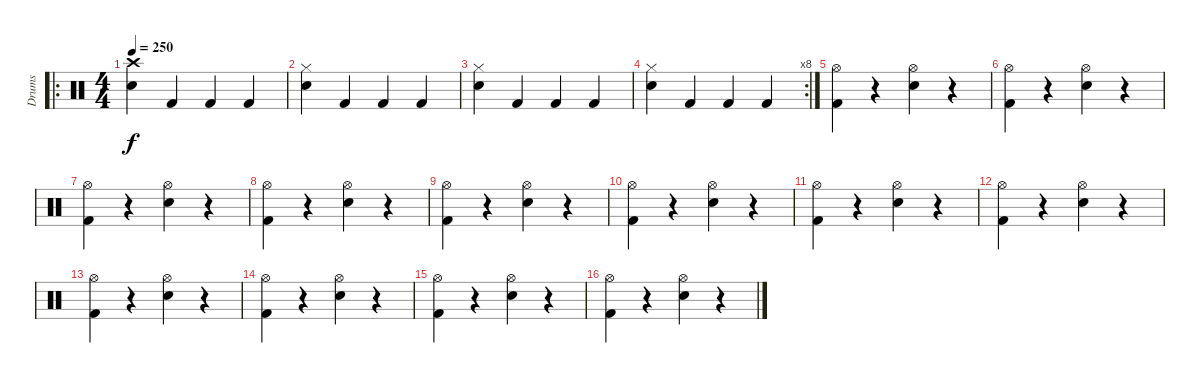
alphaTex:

\track ("Drums" "Drums") {instrument percussion}
\staff {score}
\articulation defaults
\ro
\ts (4 4)
\tempo 250
\clef neutral
\ks c
("Crash high (hit)" "Snare (hit) 2").4{dy f} "Kick (hit) 2".4 "Kick (hit) 2".4 "Kick (hit) 2".4 |
("Hi-Hat (closed)" "Snare (hit) 2").4 "Kick (hit) 2".4 "Kick (hit) 2".4 "Kick (hit) 2".4 |
("Hi-Hat (closed)" "Snare (hit) 2").4 "Kick (hit) 2".4 "Kick (hit) 2".4 "Kick (hit) 2".4 |
\rc 8
("Hi-Hat (closed)" "Snare (hit) 2").4 "Kick (hit) 2".4 "Kick (hit) 2".4 "Kick (hit) 2".4 |
("Hi-Hat (open)" "Kick (hit) 2").4 r.4 ("Hi-Hat (open)" "Snare (hit) 2").4 r.4 |
("Hi-Hat (open)" "Kick (hit) 2").4 r.4 ("Hi-Hat (open)" "Snare (hit) 2").4 r.4 |
("Hi-Hat (open)" "Kick (hit) 2").4 r.4 ("Hi-Hat (open)" "Snare (hit) 2").4 r.4 |
("Hi-Hat (open)" "Kick (hit) 2").4 r.4 ("Hi-Hat (open)" "Snare (hit) 2").4 r.4 |
("Hi-Hat (open)" "Kick (hit) 2").4 r.4 ("Hi-Hat (open)" "Snare (hit) 2").4 r.4 |
("Hi-Hat (open)" "Kick (hit) 2").4 r.4 ("Hi-Hat (open)" "Snare (hit) 2").4 r.4 |
("Hi-Hat (open)" "Kick (hit) 2").4 r.4 ("Hi-Hat (open)" "Snare (hit) 2").4 r.4 |
("Hi-Hat (open)" "Kick (hit) 2").4 r.4 ("Hi-Hat (open)" "Snare (hit) 2").4 r.4 |
("Hi-Hat (open)" "Kick (hit) 2").4 r.4 ("Hi-Hat (open)" "Snare (hit) 2").4 r.4 |
("Hi-Hat (open)" "Kick (hit) 2").4 r.4 ("Hi-Hat (open)" "Snare (hit) 2").4 r.4 |
("Hi-Hat (open)" "Kick (hit) 2").4 r.4 ("Hi-Hat (open)" "Snare (hit) 2").4 r.4 |
("Hi-Hat (open)" "Kick (hit) 2").4 r.4 ("Hi-Hat (open)" "Snare (hit) 2").4 r.4
